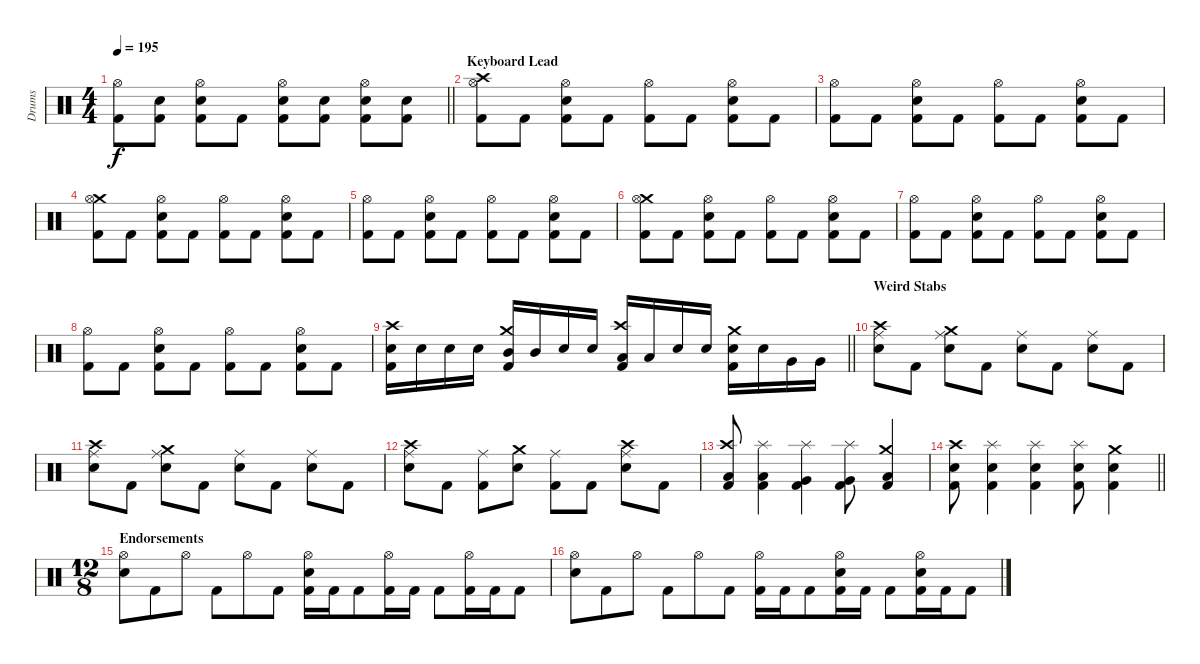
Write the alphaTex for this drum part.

\track ("Drums" "Drums") {instrument percussion}
\staff {score}
\articulation defaults
\ts (4 4)
\tempo 195
\clef neutral
\barLineRight lightlight
\ks c
("Hi-Hat (open)" "Kick (hit) 2").8{dy f} ("Snare (hit) 2" "Kick (hit) 2").8 ("Hi-Hat (open)" "Snare (hit) 2" "Kick (hit) 2").8 "Kick (hit) 2".8 ("Hi-Hat (open)" "Snare (hit) 2" "Kick (hit) 2").8 ("Snare (hit) 2" "Kick (hit) 2").8 ("Hi-Hat (open)" "Snare (hit) 2" "Kick (hit) 2").8 ("Snare (hit) 2" "Kick (hit) 2").8 |
\section ("" "Keyboard Lead")
("Crash high (hit)" "Hi-Hat (open)" "Kick (hit) 2").8 "Kick (hit) 2".8 ("Hi-Hat (open)" "Snare (hit) 2" "Kick (hit) 2").8 "Kick (hit) 2".8 ("Hi-Hat (open)" "Kick (hit) 2").8 "Kick (hit) 2".8 ("Hi-Hat (open)" "Snare (hit) 2" "Kick (hit) 2").8 "Kick (hit) 2".8 |
("Hi-Hat (open)" "Kick (hit) 2").8 "Kick (hit) 2".8 ("Hi-Hat (open)" "Snare (hit) 2" "Kick (hit) 2").8 "Kick (hit) 2".8 ("Hi-Hat (open)" "Kick (hit) 2").8 "Kick (hit) 2".8 ("Hi-Hat (open)" "Snare (hit) 2" "Kick (hit) 2").8 "Kick (hit) 2".8 |
("Crash medium (hit)" "Hi-Hat (open)" "Kick (hit) 2").8 "Kick (hit) 2".8 ("Hi-Hat (open)" "Snare (hit) 2" "Kick (hit) 2").8 "Kick (hit) 2".8 ("Hi-Hat (open)" "Kick (hit) 2").8 "Kick (hit) 2".8 ("Hi-Hat (open)" "Snare (hit) 2" "Kick (hit) 2").8 "Kick (hit) 2".8 |
("Hi-Hat (open)" "Kick (hit) 2").8 "Kick (hit) 2".8 ("Hi-Hat (open)" "Snare (hit) 2" "Kick (hit) 2").8 "Kick (hit) 2".8 ("Hi-Hat (open)" "Kick (hit) 2").8 "Kick (hit) 2".8 ("Hi-Hat (open)" "Snare (hit) 2" "Kick (hit) 2").8 "Kick (hit) 2".8 |
("Crash medium (hit)" "Hi-Hat (open)" "Kick (hit) 2").8 "Kick (hit) 2".8 ("Hi-Hat (open)" "Snare (hit) 2" "Kick (hit) 2").8 "Kick (hit) 2".8 ("Hi-Hat (open)" "Kick (hit) 2").8 "Kick (hit) 2".8 ("Hi-Hat (open)" "Snare (hit) 2" "Kick (hit) 2").8 "Kick (hit) 2".8 |
("Hi-Hat (open)" "Kick (hit) 2").8 "Kick (hit) 2".8 ("Hi-Hat (open)" "Snare (hit) 2" "Kick (hit) 2").8 "Kick (hit) 2".8 ("Hi-Hat (open)" "Kick (hit) 2").8 "Kick (hit) 2".8 ("Hi-Hat (open)" "Snare (hit) 2" "Kick (hit) 2").8 "Kick (hit) 2".8 |
("Hi-Hat (open)" "Kick (hit) 2").8 "Kick (hit) 2".8 ("Hi-Hat (open)" "Snare (hit) 2" "Kick (hit) 2").8 "Kick (hit) 2".8 ("Hi-Hat (open)" "Kick (hit) 2").8 "Kick (hit) 2".8 ("Hi-Hat (open)" "Snare (hit) 2" "Kick (hit) 2").8 "Kick (hit) 2".8 |
\barLineRight lightlight
("Crash high (hit)" "Snare (hit) 2" "Kick (hit) 2").16 "Snare (hit) 2".16 "Snare (hit) 2".16 "Snare (hit) 2".16 ("Crash medium (hit)" "Mid Tom (hit)" "Kick (hit) 2").16 "Mid Tom (hit)".16 "Snare (hit) 2".16 "Snare (hit) 2".16 ("Crash high (hit)" "Low Tom (hit)" "Kick (hit) 2").16 "Low Tom (hit)".16 "Snare (hit) 2".16 "Snare (hit) 2".16 ("Crash medium (hit)" "Snare (hit) 2" "Kick (hit) 2").16 "Snare (hit) 2".16 "Very Low Tom (hit)".16 "Very Low Tom (hit)".16 |
\section ("" "Weird Stabs")
("Crash high (hit)" "Ride (middle)" "Snare (hit) 2").8 "Kick (hit) 2".8 ("Crash medium (hit)" "Ride (middle)" "Snare (hit) 2").8 "Kick (hit) 2".8 ("Ride (middle)" "Snare (hit) 2").8 "Kick (hit) 2".8 ("Ride (middle)" "Snare (hit) 2").8 "Kick (hit) 2".8 |
("Crash high (hit)" "Ride (middle)" "Snare (hit) 2").8 "Kick (hit) 2".8 ("Crash medium (hit)" "Ride (middle)" "Snare (hit) 2").8 "Kick (hit) 2".8 ("Ride (middle)" "Snare (hit) 2").8 "Kick (hit) 2".8 ("Ride (middle)" "Snare (hit) 2").8 "Kick (hit) 2".8 |
("Crash high (hit)" "Ride (middle)" "Snare (hit) 2").8 "Kick (hit) 2".8 ("Ride (middle)" "Kick (hit) 2").8 ("Crash medium (hit)" "Snare (hit) 2").8 ("Ride (middle)" "Kick (hit) 2").8 "Kick (hit) 2".8 ("Crash high (hit)" "Ride (middle)" "Snare (hit) 2").8 "Kick (hit) 2".8 |
("Crash high (hit)" "Low Tom (hit)" "Kick (hit) 2").8 ("Splash (hit)" "Low Tom (hit)" "Kick (hit) 2").4 ("Splash (hit)" "Very Low Tom (hit)" "Kick (hit) 2").4 ("Splash (hit)" "Very Low Tom (hit)" "Kick (hit) 2").8 ("Crash medium (hit)" "Low Floor Tom (hit)" "Kick (hit) 2").4 |
\barLineRight lightlight
("Crash high (hit)" "Snare (hit) 2" "Kick (hit) 2").8 ("Splash (hit)" "Snare (hit) 2" "Kick (hit) 2").4 ("Splash (hit)" "Snare (hit) 2" "Kick (hit) 2").4 ("Splash (hit)" "Snare (hit) 2" "Kick (hit) 2").8 ("Crash medium (hit)" "Snare (hit) 2" "Kick (hit) 2").4 |
\ts (12 8)
\section ("" "Endorsements")
("Hi-Hat (open)" "Snare (hit) 2").8 "Kick (hit) 2".8 "Hi-Hat (open)".8 "Kick (hit) 2".8 "Hi-Hat (open)".8 "Kick (hit) 2".8 ("Hi-Hat (open)" "Snare (hit) 2" "Kick (hit) 2").16 "Kick (hit) 2".16 "Kick (hit) 2".8 ("Hi-Hat (open)" "Kick (hit) 2").16 "Kick (hit) 2".16 "Kick (hit) 2".8 ("Hi-Hat (open)" "Kick (hit) 2").16 "Kick (hit) 2".16 "Kick (hit) 2".8 |
("Hi-Hat (open)" "Snare (hit) 2").8 "Kick (hit) 2".8 "Hi-Hat (open)".8 "Kick (hit) 2".8 "Hi-Hat (open)".8 "Kick (hit) 2".8 ("Hi-Hat (open)" "Kick (hit) 2").16 "Kick (hit) 2".16 "Kick (hit) 2".8 ("Hi-Hat (open)" "Snare (hit) 2" "Kick (hit) 2").16 "Kick (hit) 2".16 "Kick (hit) 2".8 ("Hi-Hat (open)" "Snare (hit) 2" "Kick (hit) 2").16 "Kick (hit) 2".16 "Kick (hit) 2".8
